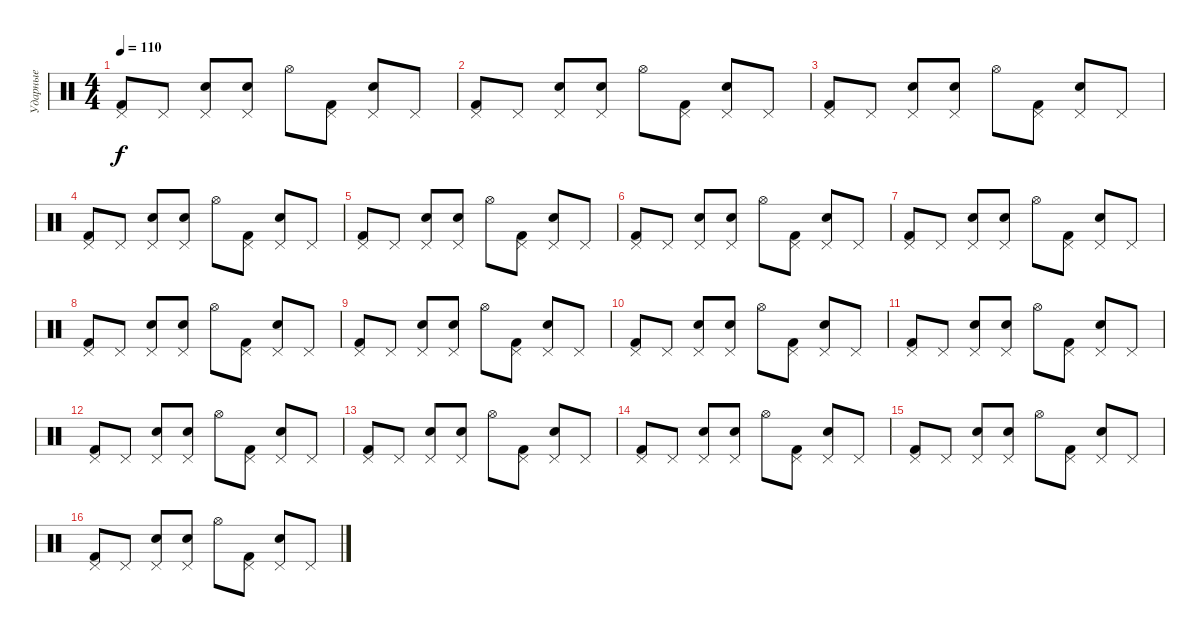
\track ("Ударные" "Ударные") {instrument percussion}
\staff {score}
\articulation defaults
\ts (4 4)
\tempo 110
\clef neutral
\ks c
("Kick (hit) 2" "Pedal Hi-Hat (hit)").8{dy f} "Pedal Hi-Hat (hit)".8 ("Snare (hit) 2" "Pedal Hi-Hat (hit)").8 ("Snare (hit) 2" "Pedal Hi-Hat (hit)").8 "Hi-Hat (open)".8 ("Kick (hit) 2" "Pedal Hi-Hat (hit)").8 ("Snare (hit) 2" "Pedal Hi-Hat (hit)").8 "Pedal Hi-Hat (hit)".8 |
("Kick (hit) 2" "Pedal Hi-Hat (hit)").8 "Pedal Hi-Hat (hit)".8 ("Snare (hit) 2" "Pedal Hi-Hat (hit)").8 ("Snare (hit) 2" "Pedal Hi-Hat (hit)").8 "Hi-Hat (open)".8 ("Kick (hit) 2" "Pedal Hi-Hat (hit)").8 ("Snare (hit) 2" "Pedal Hi-Hat (hit)").8 "Pedal Hi-Hat (hit)".8 |
("Kick (hit) 2" "Pedal Hi-Hat (hit)").8 "Pedal Hi-Hat (hit)".8 ("Snare (hit) 2" "Pedal Hi-Hat (hit)").8 ("Snare (hit) 2" "Pedal Hi-Hat (hit)").8 "Hi-Hat (open)".8 ("Kick (hit) 2" "Pedal Hi-Hat (hit)").8 ("Snare (hit) 2" "Pedal Hi-Hat (hit)").8 "Pedal Hi-Hat (hit)".8 |
("Kick (hit) 2" "Pedal Hi-Hat (hit)").8 "Pedal Hi-Hat (hit)".8 ("Snare (hit) 2" "Pedal Hi-Hat (hit)").8 ("Snare (hit) 2" "Pedal Hi-Hat (hit)").8 "Hi-Hat (open)".8 ("Kick (hit) 2" "Pedal Hi-Hat (hit)").8 ("Snare (hit) 2" "Pedal Hi-Hat (hit)").8 "Pedal Hi-Hat (hit)".8 |
("Kick (hit) 2" "Pedal Hi-Hat (hit)").8 "Pedal Hi-Hat (hit)".8 ("Snare (hit) 2" "Pedal Hi-Hat (hit)").8 ("Snare (hit) 2" "Pedal Hi-Hat (hit)").8 "Hi-Hat (open)".8 ("Kick (hit) 2" "Pedal Hi-Hat (hit)").8 ("Snare (hit) 2" "Pedal Hi-Hat (hit)").8 "Pedal Hi-Hat (hit)".8 |
("Kick (hit) 2" "Pedal Hi-Hat (hit)").8 "Pedal Hi-Hat (hit)".8 ("Snare (hit) 2" "Pedal Hi-Hat (hit)").8 ("Snare (hit) 2" "Pedal Hi-Hat (hit)").8 "Hi-Hat (open)".8 ("Kick (hit) 2" "Pedal Hi-Hat (hit)").8 ("Snare (hit) 2" "Pedal Hi-Hat (hit)").8 "Pedal Hi-Hat (hit)".8 |
("Kick (hit) 2" "Pedal Hi-Hat (hit)").8 "Pedal Hi-Hat (hit)".8 ("Snare (hit) 2" "Pedal Hi-Hat (hit)").8 ("Snare (hit) 2" "Pedal Hi-Hat (hit)").8 "Hi-Hat (open)".8 ("Kick (hit) 2" "Pedal Hi-Hat (hit)").8 ("Snare (hit) 2" "Pedal Hi-Hat (hit)").8 "Pedal Hi-Hat (hit)".8 |
("Kick (hit) 2" "Pedal Hi-Hat (hit)").8 "Pedal Hi-Hat (hit)".8 ("Snare (hit) 2" "Pedal Hi-Hat (hit)").8 ("Snare (hit) 2" "Pedal Hi-Hat (hit)").8 "Hi-Hat (open)".8 ("Kick (hit) 2" "Pedal Hi-Hat (hit)").8 ("Snare (hit) 2" "Pedal Hi-Hat (hit)").8 "Pedal Hi-Hat (hit)".8 |
("Kick (hit) 2" "Pedal Hi-Hat (hit)").8 "Pedal Hi-Hat (hit)".8 ("Snare (hit) 2" "Pedal Hi-Hat (hit)").8 ("Snare (hit) 2" "Pedal Hi-Hat (hit)").8 "Hi-Hat (open)".8 ("Kick (hit) 2" "Pedal Hi-Hat (hit)").8 ("Snare (hit) 2" "Pedal Hi-Hat (hit)").8 "Pedal Hi-Hat (hit)".8 |
("Kick (hit) 2" "Pedal Hi-Hat (hit)").8 "Pedal Hi-Hat (hit)".8 ("Snare (hit) 2" "Pedal Hi-Hat (hit)").8 ("Snare (hit) 2" "Pedal Hi-Hat (hit)").8 "Hi-Hat (open)".8 ("Kick (hit) 2" "Pedal Hi-Hat (hit)").8 ("Snare (hit) 2" "Pedal Hi-Hat (hit)").8 "Pedal Hi-Hat (hit)".8 |
("Kick (hit) 2" "Pedal Hi-Hat (hit)").8 "Pedal Hi-Hat (hit)".8 ("Snare (hit) 2" "Pedal Hi-Hat (hit)").8 ("Snare (hit) 2" "Pedal Hi-Hat (hit)").8 "Hi-Hat (open)".8 ("Kick (hit) 2" "Pedal Hi-Hat (hit)").8 ("Snare (hit) 2" "Pedal Hi-Hat (hit)").8 "Pedal Hi-Hat (hit)".8 |
("Kick (hit) 2" "Pedal Hi-Hat (hit)").8 "Pedal Hi-Hat (hit)".8 ("Snare (hit) 2" "Pedal Hi-Hat (hit)").8 ("Snare (hit) 2" "Pedal Hi-Hat (hit)").8 "Hi-Hat (open)".8 ("Kick (hit) 2" "Pedal Hi-Hat (hit)").8 ("Snare (hit) 2" "Pedal Hi-Hat (hit)").8 "Pedal Hi-Hat (hit)".8 |
("Kick (hit) 2" "Pedal Hi-Hat (hit)").8 "Pedal Hi-Hat (hit)".8 ("Snare (hit) 2" "Pedal Hi-Hat (hit)").8 ("Snare (hit) 2" "Pedal Hi-Hat (hit)").8 "Hi-Hat (open)".8 ("Kick (hit) 2" "Pedal Hi-Hat (hit)").8 ("Snare (hit) 2" "Pedal Hi-Hat (hit)").8 "Pedal Hi-Hat (hit)".8 |
("Kick (hit) 2" "Pedal Hi-Hat (hit)").8 "Pedal Hi-Hat (hit)".8 ("Snare (hit) 2" "Pedal Hi-Hat (hit)").8 ("Snare (hit) 2" "Pedal Hi-Hat (hit)").8 "Hi-Hat (open)".8 ("Kick (hit) 2" "Pedal Hi-Hat (hit)").8 ("Snare (hit) 2" "Pedal Hi-Hat (hit)").8 "Pedal Hi-Hat (hit)".8 |
("Kick (hit) 2" "Pedal Hi-Hat (hit)").8 "Pedal Hi-Hat (hit)".8 ("Snare (hit) 2" "Pedal Hi-Hat (hit)").8 ("Snare (hit) 2" "Pedal Hi-Hat (hit)").8 "Hi-Hat (open)".8 ("Kick (hit) 2" "Pedal Hi-Hat (hit)").8 ("Snare (hit) 2" "Pedal Hi-Hat (hit)").8 "Pedal Hi-Hat (hit)".8 |
("Kick (hit) 2" "Pedal Hi-Hat (hit)").8 "Pedal Hi-Hat (hit)".8 ("Snare (hit) 2" "Pedal Hi-Hat (hit)").8 ("Snare (hit) 2" "Pedal Hi-Hat (hit)").8 "Hi-Hat (open)".8 ("Kick (hit) 2" "Pedal Hi-Hat (hit)").8 ("Snare (hit) 2" "Pedal Hi-Hat (hit)").8 "Pedal Hi-Hat (hit)".8
